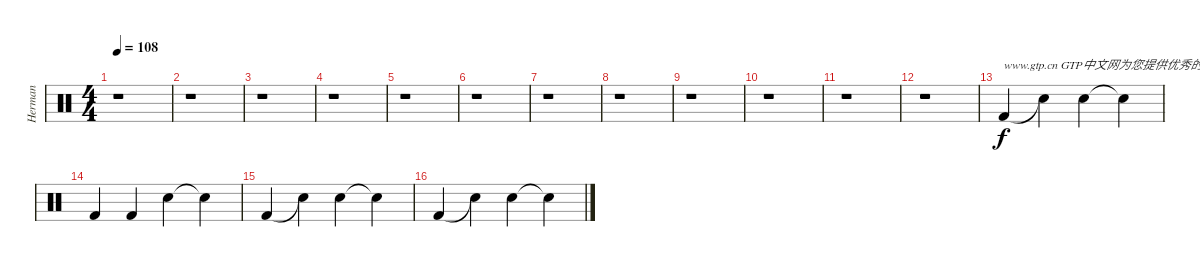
\track ("Herman" "Herman") {instrument percussion}
\staff {score}
\articulation defaults
\ts (4 4)
\tempo 108
\clef neutral
\ks c
r.1{dy f} |
r.1 |
r.1 |
r.1 |
r.1 |
r.1 |
r.1 |
r.1 |
r.1 |
r.1 |
r.1 |
r.1 |
"Kick (hit) 2".4{txt "www.gtp.cn GTP中文网为您提供优秀的谱子"} "Snare (hit)"{t}.4 "Snare (hit) 2".4 "Snare (hit)"{t}.4 |
"Kick (hit) 2".4 "Kick (hit) 2".4 "Snare (hit) 2".4 "Snare (hit)"{t}.4 |
"Kick (hit) 2".4 "Snare (hit)"{t}.4 "Snare (hit) 2".4 "Snare (hit)"{t}.4 |
"Kick (hit) 2".4 "Snare (hit)"{t}.4 "Snare (hit) 2".4 "Snare (hit)"{t}.4
